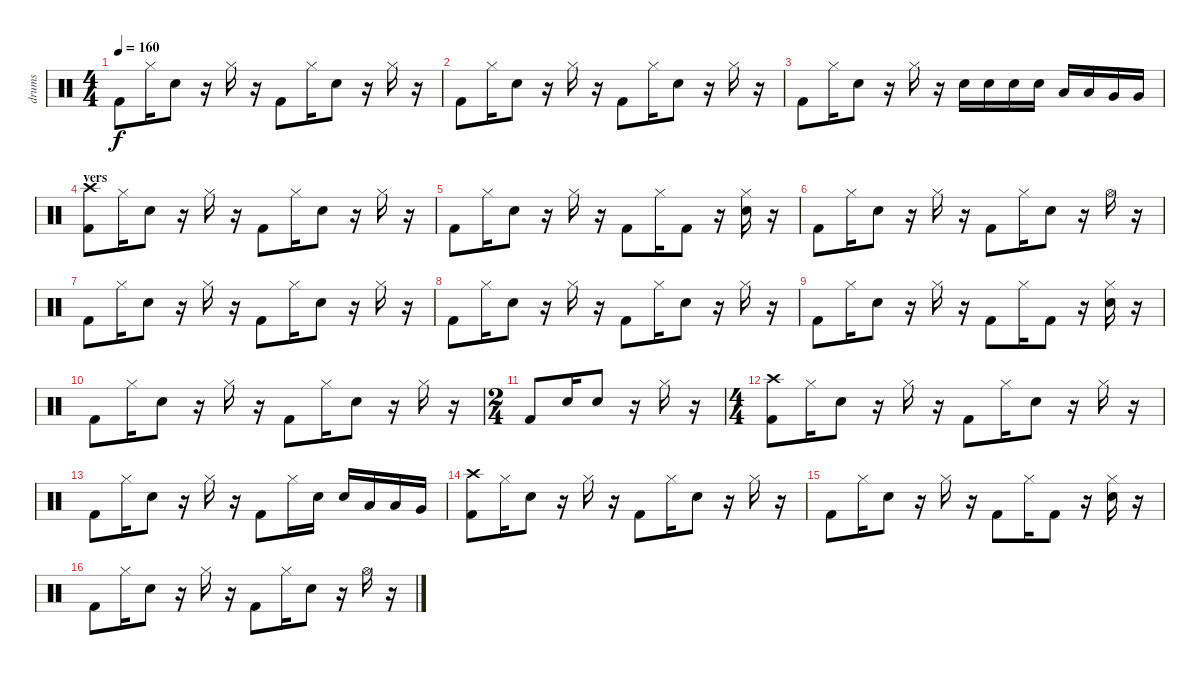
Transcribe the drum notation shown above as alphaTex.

\track ("drums" "drums") {instrument percussion}
\staff {score}
\articulation defaults
\ts (4 4)
\tempo 160
\clef neutral
\ks c "Kick (hit) 2".8{dy f} "Hi-Hat (closed)".16 "Electric Snare (hit)".8
r.16 "Hi-Hat (closed)".16 r.16 "Kick (hit) 2".8 "Hi-Hat (closed)".16 "Electric Snare (hit)".8 r.16 "Hi-Hat (closed)".16 r.16 |
"Kick (hit) 2".8 "Hi-Hat (closed)".16 "Electric Snare (hit)".8 r.16 "Hi-Hat (closed)".16 r.16 "Kick (hit) 2".8 "Hi-Hat (closed)".16 "Electric Snare (hit)".8 r.16 "Hi-Hat (closed)".16 r.16 |
"Kick (hit) 2".8 "Hi-Hat (closed)".16 "Electric Snare (hit)".8 r.16 "Hi-Hat (closed)".16 r.16 "Electric Snare (hit)".16 "Electric Snare (hit)".16 "Electric Snare (hit)".16 "Electric Snare (hit)".16 "Low Tom (hit)".16 "Low Tom (hit)".16 "Very Low Tom (hit)".16 "Very Low Tom (hit)".16 |
\section ("" "vers")
("Crash high (hit)" "Kick (hit) 2").8 "Hi-Hat (closed)".16 "Electric Snare (hit)".8 r.16 "Hi-Hat (closed)".16 r.16 "Kick (hit) 2".8 "Hi-Hat (closed)".16 "Electric Snare (hit)".8 r.16 "Hi-Hat (closed)".16 r.16 |
"Kick (hit) 2".8 "Hi-Hat (closed)".16 "Electric Snare (hit)".8 r.16 "Hi-Hat (closed)".16 r.16 "Kick (hit) 2".8 "Hi-Hat (closed)".16 "Kick (hit) 2".8 r.16 ("Hi-Hat (closed)" "Electric Snare (hit)").16 r.16 |
"Kick (hit) 2".8 "Hi-Hat (closed)".16 "Electric Snare (hit)".8 r.16 "Hi-Hat (closed)".16 r.16 "Kick (hit) 2".8 "Hi-Hat (closed)".16 "Electric Snare (hit)".8 r.16 "Hi-Hat (open)".16 r.16 |
"Kick (hit) 2".8 "Hi-Hat (closed)".16 "Electric Snare (hit)".8 r.16 "Hi-Hat (closed)".16 r.16 "Kick (hit) 2".8 "Hi-Hat (closed)".16 "Electric Snare (hit)".8 r.16 "Hi-Hat (closed)".16 r.16 |
"Kick (hit) 2".8 "Hi-Hat (closed)".16 "Electric Snare (hit)".8 r.16 "Hi-Hat (closed)".16 r.16 "Kick (hit) 2".8 "Hi-Hat (closed)".16 "Electric Snare (hit)".8 r.16 "Hi-Hat (closed)".16 r.16 |
"Kick (hit) 2".8 "Hi-Hat (closed)".16 "Electric Snare (hit)".8 r.16 "Hi-Hat (closed)".16 r.16 "Kick (hit) 2".8 "Hi-Hat (closed)".16 "Kick (hit) 2".8 r.16 ("Hi-Hat (closed)" "Electric Snare (hit)").16 r.16 |
"Kick (hit) 2".8 "Hi-Hat (closed)".16 "Electric Snare (hit)".8 r.16 "Hi-Hat (closed)".16 r.16 "Kick (hit) 2".8 "Hi-Hat (closed)".16 "Electric Snare (hit)".8 r.16 "Hi-Hat (closed)".16 r.16 |
\ts (2 4)
"Kick (hit) 2".8 "Electric Snare (hit)".16 "Electric Snare (hit)".8 r.16 "Hi-Hat (closed)".16 r.16 |
\ts (4 4)
("Crash high (hit)" "Kick (hit) 2").8 "Hi-Hat (closed)".16 "Electric Snare (hit)".8 r.16 "Hi-Hat (closed)".16 r.16 "Kick (hit) 2".8 "Hi-Hat (closed)".16 "Electric Snare (hit)".8 r.16 "Hi-Hat (closed)".16 r.16 |
"Kick (hit) 2".8 "Hi-Hat (closed)".16 "Electric Snare (hit)".8 r.16 "Hi-Hat (closed)".16 r.16 "Kick (hit) 2".8 "Hi-Hat (closed)".16 "Electric Snare (hit)".16 "Electric Snare (hit)".16 "Low Tom (hit)".16 "Low Tom (hit)".16 "Very Low Tom (hit)".16 |
("Crash high (hit)" "Kick (hit) 2").8 "Hi-Hat (closed)".16 "Electric Snare (hit)".8 r.16 "Hi-Hat (closed)".16 r.16 "Kick (hit) 2".8 "Hi-Hat (closed)".16 "Electric Snare (hit)".8 r.16 "Hi-Hat (closed)".16 r.16 |
"Kick (hit) 2".8 "Hi-Hat (closed)".16 "Electric Snare (hit)".8 r.16 "Hi-Hat (closed)".16 r.16 "Kick (hit) 2".8 "Hi-Hat (closed)".16 "Kick (hit) 2".8 r.16 ("Hi-Hat (closed)" "Electric Snare (hit)").16 r.16 |
"Kick (hit) 2".8 "Hi-Hat (closed)".16 "Electric Snare (hit)".8 r.16 "Hi-Hat (closed)".16 r.16 "Kick (hit) 2".8 "Hi-Hat (closed)".16 "Electric Snare (hit)".8 r.16 "Hi-Hat (open)".16 r.16
